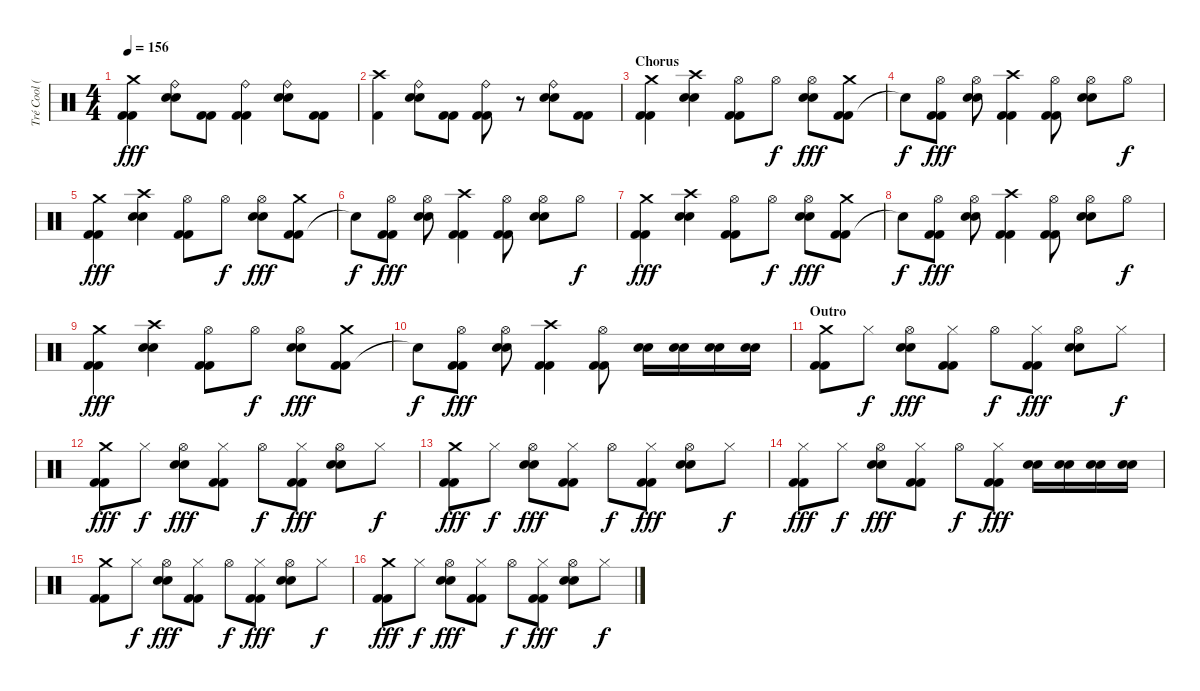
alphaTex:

\track ("Tré Cool (Drums)" "Tré Cool (") {instrument percussion}
\staff {score}
\articulation defaults
\ts (4 4)
\tempo 156
\clef neutral
\ks c
("Kick (hit) 2" "Kick (hit) 2" "Crash medium (hit)").4{dy fff} ("Electric Snare (hit)" "Electric Snare (hit)" "Ride (bell)").8 ("Kick (hit) 2" "Kick (hit) 2").8 ("Kick (hit) 2" "Kick (hit) 2" "Ride (bell)").4 ("Electric Snare (hit)" "Electric Snare (hit)" "Ride (bell)").8 ("Kick (hit) 2" "Kick (hit) 2").8 |
("Kick (hit) 2" "Crash high (hit)").4 ("Electric Snare (hit)" "Electric Snare (hit)" "Ride (bell)").8 ("Kick (hit) 2" "Kick (hit) 2").8 ("Kick (hit) 2" "Kick (hit) 2" "Ride (bell)").8 r.8 ("Electric Snare (hit)" "Electric Snare (hit)" "Ride (bell)").8 ("Kick (hit) 2" "Kick (hit) 2").8 |
\section ("" "Chorus")
("Kick (hit) 2" "Kick (hit) 2" "Crash medium (hit)").4 ("Electric Snare (hit)" "Electric Snare (hit)" "Crash high (hit)").4 ("Kick (hit) 2" "Kick (hit) 2" "Hi-Hat (open)").8 "Hi-Hat (open)".8{dy f} ("Electric Snare (hit)" "Electric Snare (hit)" "Hi-Hat (open)").8{dy fff} ("Kick (hit) 2" "Kick (hit) 2" "Crash medium (hit)").8 |
"Snare (hit)"{t}.8{dy f} ("Kick (hit) 2" "Kick (hit) 2" "Hi-Hat (open)").8{dy fff} ("Electric Snare (hit)" "Electric Snare (hit)" "Hi-Hat (open)").8 ("Kick (hit) 2" "Kick (hit) 2" "Crash high (hit)").4 ("Kick (hit) 2" "Kick (hit) 2" "Hi-Hat (open)").8 ("Electric Snare (hit)" "Electric Snare (hit)" "Hi-Hat (open)").8 "Hi-Hat (open)".8{dy f} |
("Kick (hit) 2" "Kick (hit) 2" "Crash medium (hit)").4{dy fff} ("Electric Snare (hit)" "Electric Snare (hit)" "Crash high (hit)").4 ("Kick (hit) 2" "Kick (hit) 2" "Hi-Hat (open)").8 "Hi-Hat (open)".8{dy f} ("Electric Snare (hit)" "Electric Snare (hit)" "Hi-Hat (open)").8{dy fff} ("Kick (hit) 2" "Kick (hit) 2" "Crash medium (hit)").8 |
"Snare (hit)"{t}.8{dy f} ("Kick (hit) 2" "Kick (hit) 2" "Hi-Hat (open)").8{dy fff} ("Electric Snare (hit)" "Electric Snare (hit)" "Hi-Hat (open)").8 ("Kick (hit) 2" "Kick (hit) 2" "Crash high (hit)").4 ("Kick (hit) 2" "Kick (hit) 2" "Hi-Hat (open)").8 ("Electric Snare (hit)" "Electric Snare (hit)" "Hi-Hat (open)").8 "Hi-Hat (open)".8{dy f} |
("Kick (hit) 2" "Kick (hit) 2" "Crash medium (hit)").4{dy fff} ("Electric Snare (hit)" "Electric Snare (hit)" "Crash high (hit)").4 ("Kick (hit) 2" "Kick (hit) 2" "Hi-Hat (open)").8 "Hi-Hat (open)".8{dy f} ("Electric Snare (hit)" "Electric Snare (hit)" "Hi-Hat (open)").8{dy fff} ("Kick (hit) 2" "Kick (hit) 2" "Crash medium (hit)").8 |
"Snare (hit)"{t}.8{dy f} ("Kick (hit) 2" "Kick (hit) 2" "Hi-Hat (open)").8{dy fff} ("Electric Snare (hit)" "Electric Snare (hit)" "Hi-Hat (open)").8 ("Kick (hit) 2" "Kick (hit) 2" "Crash high (hit)").4 ("Kick (hit) 2" "Kick (hit) 2" "Hi-Hat (open)").8 ("Electric Snare (hit)" "Electric Snare (hit)" "Hi-Hat (open)").8 "Hi-Hat (open)".8{dy f} |
("Kick (hit) 2" "Kick (hit) 2" "Crash medium (hit)").4{dy fff} ("Electric Snare (hit)" "Electric Snare (hit)" "Crash high (hit)").4 ("Kick (hit) 2" "Kick (hit) 2" "Hi-Hat (open)").8 "Hi-Hat (open)".8{dy f} ("Electric Snare (hit)" "Electric Snare (hit)" "Hi-Hat (open)").8{dy fff} ("Kick (hit) 2" "Kick (hit) 2" "Crash medium (hit)").8 |
"Snare (hit)"{t}.8{dy f} ("Kick (hit) 2" "Kick (hit) 2" "Hi-Hat (open)").8{dy fff} ("Electric Snare (hit)" "Electric Snare (hit)" "Hi-Hat (open)").8 ("Kick (hit) 2" "Kick (hit) 2" "Crash high (hit)").4 ("Kick (hit) 2" "Kick (hit) 2" "Hi-Hat (open)").8 ("Electric Snare (hit)" "Electric Snare (hit)").16 ("Electric Snare (hit)" "Electric Snare (hit)").16 ("Electric Snare (hit)" "Electric Snare (hit)").16 ("Electric Snare (hit)" "Electric Snare (hit)").16 |
\section ("" "Outro")
("Kick (hit) 2" "Kick (hit) 2" "Crash medium (hit)").8 "Hi-Hat (closed)".8{dy f} ("Electric Snare (hit)" "Electric Snare (hit)" "Hi-Hat (open)").8{dy fff} ("Kick (hit) 2" "Kick (hit) 2" "Hi-Hat (closed)").8 "Hi-Hat (open)".8{dy f} ("Kick (hit) 2" "Kick (hit) 2" "Hi-Hat (closed)").8{dy fff} ("Electric Snare (hit)" "Electric Snare (hit)" "Hi-Hat (open)").8 "Hi-Hat (closed)".8{dy f} |
("Kick (hit) 2" "Kick (hit) 2" "Crash medium (hit)").8{dy fff} "Hi-Hat (closed)".8{dy f} ("Electric Snare (hit)" "Electric Snare (hit)" "Hi-Hat (open)").8{dy fff} ("Kick (hit) 2" "Kick (hit) 2" "Hi-Hat (closed)").8 "Hi-Hat (open)".8{dy f} ("Kick (hit) 2" "Kick (hit) 2" "Hi-Hat (closed)").8{dy fff} ("Electric Snare (hit)" "Electric Snare (hit)" "Hi-Hat (open)").8 "Hi-Hat (closed)".8{dy f} |
("Kick (hit) 2" "Kick (hit) 2" "Crash medium (hit)").8{dy fff} "Hi-Hat (closed)".8{dy f} ("Electric Snare (hit)" "Electric Snare (hit)" "Hi-Hat (open)").8{dy fff} ("Kick (hit) 2" "Kick (hit) 2" "Hi-Hat (closed)").8 "Hi-Hat (open)".8{dy f} ("Kick (hit) 2" "Kick (hit) 2" "Hi-Hat (closed)").8{dy fff} ("Electric Snare (hit)" "Electric Snare (hit)" "Hi-Hat (open)").8 "Hi-Hat (closed)".8{dy f} |
("Kick (hit) 2" "Kick (hit) 2" "Hi-Hat (closed)").8{dy fff} "Hi-Hat (closed)".8{dy f} ("Electric Snare (hit)" "Electric Snare (hit)" "Hi-Hat (open)").8{dy fff} ("Kick (hit) 2" "Kick (hit) 2" "Hi-Hat (closed)").8 "Hi-Hat (open)".8{dy f} ("Kick (hit) 2" "Kick (hit) 2" "Hi-Hat (closed)").8{dy fff} ("Electric Snare (hit)" "Electric Snare (hit)").16 ("Electric Snare (hit)" "Electric Snare (hit)").16 ("Electric Snare (hit)" "Electric Snare (hit)").16 ("Electric Snare (hit)" "Electric Snare (hit)").16 |
("Kick (hit) 2" "Kick (hit) 2" "Crash medium (hit)").8 "Hi-Hat (closed)".8{dy f} ("Electric Snare (hit)" "Electric Snare (hit)" "Hi-Hat (open)").8{dy fff} ("Kick (hit) 2" "Kick (hit) 2" "Hi-Hat (closed)").8 "Hi-Hat (open)".8{dy f} ("Kick (hit) 2" "Kick (hit) 2" "Hi-Hat (closed)").8{dy fff} ("Electric Snare (hit)" "Electric Snare (hit)" "Hi-Hat (open)").8 "Hi-Hat (closed)".8{dy f} |
("Kick (hit) 2" "Kick (hit) 2" "Crash medium (hit)").8{dy fff} "Hi-Hat (closed)".8{dy f} ("Electric Snare (hit)" "Electric Snare (hit)" "Hi-Hat (open)").8{dy fff} ("Kick (hit) 2" "Kick (hit) 2" "Hi-Hat (closed)").8 "Hi-Hat (open)".8{dy f} ("Kick (hit) 2" "Kick (hit) 2" "Hi-Hat (closed)").8{dy fff} ("Electric Snare (hit)" "Electric Snare (hit)" "Hi-Hat (open)").8 "Hi-Hat (closed)".8{dy f}
